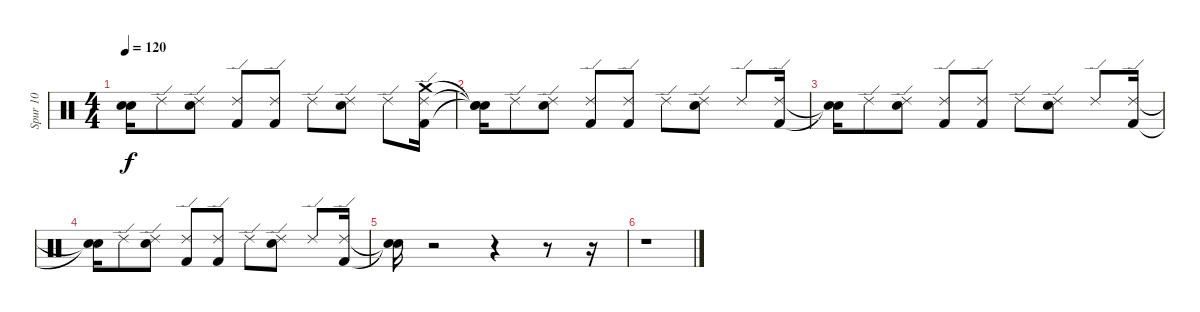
\track ("Spur 10" "Spur 10") {instrument percussion}
\staff {score}
\articulation defaults
\ts (4 4)
\tempo 120
\clef neutral
\ks c
("Snare (hit)"{t} "Snare (hit)"{t}).16{dy f} "Ride (edge) 2".8 ("Electric Snare (hit)" "Ride (edge) 2").8 ("Kick (hit) 2" "Ride (edge) 2").8 ("Kick (hit) 2" "Ride (edge) 2").8 "Ride (edge) 2".8 ("Electric Snare (hit)" "Ride (edge) 2").8 "Ride (edge) 2".8 ("Kick (hit) 2" "Ride (edge) 2" "Crash medium (hit)").16 |
("Snare (hit)"{t} "Snare (hit)"{t} "Snare (hit)"{t}).16 "Ride (edge) 2".8 ("Electric Snare (hit)" "Ride (edge) 2").8 ("Kick (hit) 2" "Ride (edge) 2").8 ("Kick (hit) 2" "Ride (edge) 2").8 "Ride (edge) 2".8 ("Electric Snare (hit)" "Ride (edge) 2").8 "Ride (edge) 2".8 ("Kick (hit) 2" "Ride (edge) 2").16 |
("Snare (hit)"{t} "Snare (hit)"{t}).16 "Ride (edge) 2".8 ("Electric Snare (hit)" "Ride (edge) 2").8 ("Kick (hit) 2" "Ride (edge) 2").8 ("Kick (hit) 2" "Ride (edge) 2").8 "Ride (edge) 2".8 ("Electric Snare (hit)" "Ride (edge) 2").8 "Ride (edge) 2".8 ("Kick (hit) 2" "Ride (edge) 2").16 |
("Snare (hit)"{t} "Snare (hit)"{t}).16 "Ride (edge) 2".8 ("Electric Snare (hit)" "Ride (edge) 2").8 ("Kick (hit) 2" "Ride (edge) 2").8 ("Kick (hit) 2" "Ride (edge) 2").8 "Ride (edge) 2".8 ("Electric Snare (hit)" "Ride (edge) 2").8 "Ride (edge) 2".8 ("Kick (hit) 2" "Ride (edge) 2").16 |
("Snare (hit)"{t} "Snare (hit)"{t}).16 r.2 r.4 r.8 r.16 |
r.1
